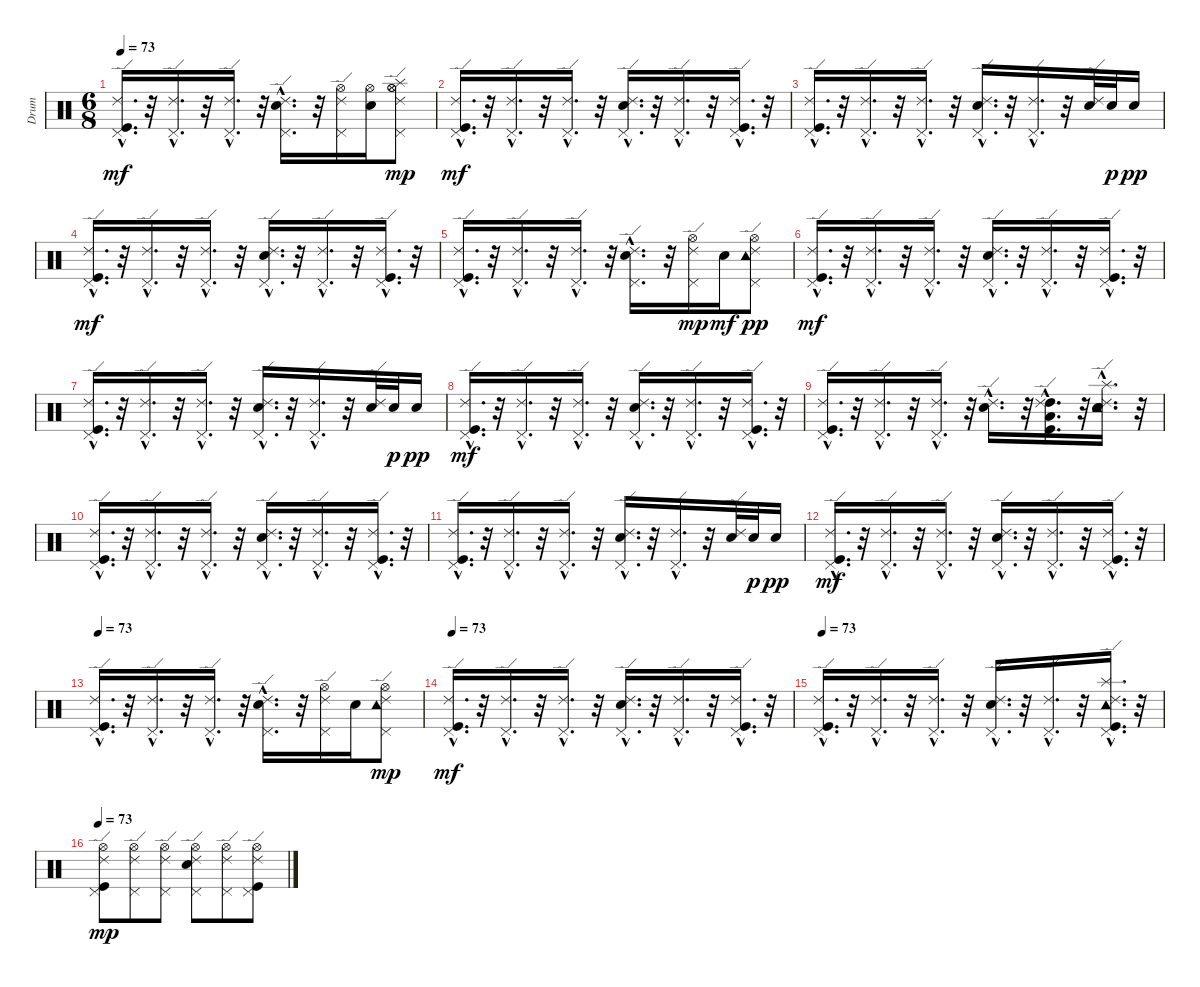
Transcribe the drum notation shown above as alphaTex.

\track ("Drum" "Drum") {instrument percussion}
\staff {score}
\articulation defaults
\ts (6 8)
\tempo 73
\clef neutral
\ks c
("Ride (edge) 2"{hac} "Pedal Hi-Hat (hit)"{hac} "Kick (hit)"{hac}).16{d dy mf} r.32 ("Pedal Hi-Hat (hit)"{hac} "Ride (edge) 2"{hac}).16{d} r.32 ("Ride (edge) 2"{hac} "Pedal Hi-Hat (hit)"{hac}).16{d} r.32 ("Ride (edge) 2"{hac} "Pedal Hi-Hat (hit)"{hac} "Snare (hit) 2"{hac}).16{d} r.32 ("Hi-Hat (open)" "Ride (edge) 2" "Pedal Hi-Hat (hit)").16 ("Hi-Hat (open)" "Snare (hit) 2").16 ("Splash (hit)" "Hi-Hat (open)" "Pedal Hi-Hat (hit)" "Ride (edge) 2" "Hi-Hat (open)").8{dy mp} |
("Kick (hit)"{hac} "Pedal Hi-Hat (hit)"{hac} "Ride (edge) 2"{hac}).16{d dy mf} r.32 ("Pedal Hi-Hat (hit)"{hac} "Ride (edge) 2"{hac}).16{d} r.32 ("Pedal Hi-Hat (hit)"{hac} "Ride (edge) 2"{hac}).16{d} r.32 ("Snare (hit) 2"{hac} "Pedal Hi-Hat (hit)"{hac} "Ride (edge) 2"{hac}).16{d} r.32 ("Pedal Hi-Hat (hit)"{hac} "Ride (edge) 2"{hac}).16{d} r.32 ("Kick (hit)"{hac} "Pedal Hi-Hat (hit)"{hac} "Ride (edge) 2"{hac}).16{d} r.32 |
("Kick (hit)"{hac} "Pedal Hi-Hat (hit)"{hac} "Ride (edge) 2"{hac}).16{d} r.32 ("Pedal Hi-Hat (hit)"{hac} "Ride (edge) 2"{hac}).16{d} r.32 ("Pedal Hi-Hat (hit)"{hac} "Ride (edge) 2"{hac}).16{d} r.32 ("Snare (hit) 2"{hac} "Pedal Hi-Hat (hit)"{hac} "Ride (edge) 2"{hac}).16{d} r.32 ("Pedal Hi-Hat (hit)"{hac} "Ride (edge) 2"{hac}).16{d} r.32 ("Snare (hit) 2" "Ride (edge) 2").32 "Snare (hit) 2".32{dy p} "Snare (hit) 2".16{dy pp} |
("Ride (edge) 2"{hac} "Pedal Hi-Hat (hit)"{hac} "Kick (hit)"{hac}).16{d dy mf} r.32 ("Ride (edge) 2"{hac} "Pedal Hi-Hat (hit)"{hac}).16{d} r.32 ("Ride (edge) 2"{hac} "Pedal Hi-Hat (hit)"{hac}).16{d} r.32 ("Ride (edge) 2"{hac} "Pedal Hi-Hat (hit)"{hac} "Snare (hit) 2"{hac}).16{d} r.32 ("Ride (edge) 2"{hac} "Pedal Hi-Hat (hit)"{hac}).16{d} r.32 ("Ride (edge) 2"{hac} "Pedal Hi-Hat (hit)"{hac} "Kick (hit)"{hac}).16{d} r.32 |
("Pedal Hi-Hat (hit)"{hac} "Kick (hit)"{hac} "Ride (edge) 2"{hac}).16{d} r.32 ("Pedal Hi-Hat (hit)"{hac} "Ride (edge) 2"{hac}).16{d} r.32 ("Ride (edge) 2"{hac} "Pedal Hi-Hat (hit)"{hac}).16{d} r.32 ("Pedal Hi-Hat (hit)"{hac} "Ride (edge) 2"{hac} "Snare (hit) 2"{hac}).16{d} r.32 ("Pedal Hi-Hat (hit)" "Ride (edge) 2" "Hi-Hat (open)").16{dy mp} "Snare (hit) 2".16{dy mf} ("Tambourine (hit)" "Pedal Hi-Hat (hit)" "Ride (edge) 2" "Hi-Hat (open)").8{dy pp} |
("Ride (edge) 2"{hac} "Pedal Hi-Hat (hit)"{hac} "Kick (hit)"{hac}).16{d dy mf} r.32 ("Ride (edge) 2"{hac} "Pedal Hi-Hat (hit)"{hac}).16{d} r.32 ("Ride (edge) 2"{hac} "Pedal Hi-Hat (hit)"{hac}).16{d} r.32 ("Ride (edge) 2"{hac} "Pedal Hi-Hat (hit)"{hac} "Snare (hit) 2"{hac}).16{d} r.32 ("Ride (edge) 2"{hac} "Pedal Hi-Hat (hit)"{hac}).16{d} r.32 ("Ride (edge) 2"{hac} "Pedal Hi-Hat (hit)"{hac} "Kick (hit)"{hac}).16{d} r.32 |
("Ride (edge) 2"{hac} "Pedal Hi-Hat (hit)"{hac} "Kick (hit)"{hac}).16{d} r.32 ("Ride (edge) 2"{hac} "Pedal Hi-Hat (hit)"{hac}).16{d} r.32 ("Ride (edge) 2"{hac} "Pedal Hi-Hat (hit)"{hac}).16{d} r.32 ("Ride (edge) 2"{hac} "Pedal Hi-Hat (hit)"{hac} "Snare (hit) 2"{hac}).16{d} r.32 ("Ride (edge) 2"{hac} "Pedal Hi-Hat (hit)"{hac}).16{d} r.32 ("Ride (edge) 2" "Snare (hit) 2").32 "Snare (hit) 2".32{dy p} "Snare (hit) 2".16{dy pp} |
("Kick (hit)"{hac} "Pedal Hi-Hat (hit)"{hac} "Ride (edge) 2"{hac}).16{d dy mf} r.32 ("Pedal Hi-Hat (hit)"{hac} "Ride (edge) 2"{hac}).16{d} r.32 ("Pedal Hi-Hat (hit)"{hac} "Ride (edge) 2"{hac}).16{d} r.32 ("Snare (hit) 2"{hac} "Pedal Hi-Hat (hit)"{hac} "Ride (edge) 2"{hac}).16{d} r.32 ("Pedal Hi-Hat (hit)"{hac} "Ride (edge) 2"{hac}).16{d} r.32 ("Kick (hit)"{hac} "Pedal Hi-Hat (hit)"{hac} "Ride (edge) 2"{hac}).16{d} r.32 |
("Ride (edge) 2"{hac} "Pedal Hi-Hat (hit)"{hac} "Kick (hit)"{hac}).16{d} r.32 ("Ride (edge) 2"{hac} "Pedal Hi-Hat (hit)"{hac}).16{d} r.32 ("Pedal Hi-Hat (hit)"{hac} "Ride (edge) 2"{hac}).16{d} r.32 ("Snare (hit) 2"{hac} "Ride (edge) 2"{hac}).16{d} r.32 ("Low Tom (hit)"{hac} "Kick (hit)"{hac} "High Tom (hit)"{hac} "Ride (edge) 2"{hac}).16{d} r.32 ("Splash (hit)"{hac} "Tambourine (hit)"{hac} "Snare (hit) 2"{hac} "Electric Snare (hit)"{hac} "Ride (edge) 2"{hac}).16{d} r.32 |
("Kick (hit)"{hac} "Pedal Hi-Hat (hit)"{hac} "Ride (edge) 2"{hac}).16{d} r.32 ("Pedal Hi-Hat (hit)"{hac} "Ride (edge) 2"{hac}).16{d} r.32 ("Pedal Hi-Hat (hit)"{hac} "Ride (edge) 2"{hac}).16{d} r.32 ("Snare (hit) 2"{hac} "Pedal Hi-Hat (hit)"{hac} "Ride (edge) 2"{hac}).16{d} r.32 ("Pedal Hi-Hat (hit)"{hac} "Ride (edge) 2"{hac}).16{d} r.32 ("Kick (hit)"{hac} "Pedal Hi-Hat (hit)"{hac} "Ride (edge) 2"{hac}).16{d} r.32 |
("Kick (hit)"{hac} "Pedal Hi-Hat (hit)"{hac} "Ride (edge) 2"{hac}).16{d} r.32 ("Pedal Hi-Hat (hit)"{hac} "Ride (edge) 2"{hac}).16{d} r.32 ("Pedal Hi-Hat (hit)"{hac} "Ride (edge) 2"{hac}).16{d} r.32 ("Snare (hit) 2"{hac} "Pedal Hi-Hat (hit)"{hac} "Ride (edge) 2"{hac}).16{d} r.32 ("Pedal Hi-Hat (hit)"{hac} "Ride (edge) 2"{hac}).16{d} r.32 ("Snare (hit) 2" "Ride (edge) 2").32 "Snare (hit) 2".32{dy p} "Snare (hit) 2".16{dy pp} |
("Ride (edge) 2"{hac} "Kick (hit)"{hac} "Pedal Hi-Hat (hit)"{hac}).16{d dy mf} r.32 ("Ride (edge) 2"{hac} "Pedal Hi-Hat (hit)"{hac}).16{d} r.32 ("Pedal Hi-Hat (hit)"{hac} "Ride (edge) 2"{hac}).16{d} r.32 ("Pedal Hi-Hat (hit)"{hac} "Ride (edge) 2"{hac} "Snare (hit) 2"{hac}).16{d} r.32 ("Ride (edge) 2"{hac} "Pedal Hi-Hat (hit)"{hac}).16{d} r.32 ("Kick (hit)"{hac} "Ride (edge) 2"{hac} "Pedal Hi-Hat (hit)"{hac}).16{d} r.32 |
\tempo 73
("Ride (edge) 2"{hac} "Kick (hit)"{hac} "Pedal Hi-Hat (hit)"{hac}).16{d} r.32 ("Ride (edge) 2"{hac} "Pedal Hi-Hat (hit)"{hac}).16{d} r.32 ("Pedal Hi-Hat (hit)"{hac} "Ride (edge) 2"{hac}).16{d} r.32 ("Snare (hit) 2"{hac} "Ride (edge) 2"{hac} "Pedal Hi-Hat (hit)"{hac}).16{d} r.32 ("Hi-Hat (open)" "Ride (edge) 2" "Pedal Hi-Hat (hit)").16 "Snare (hit) 2".16 ("Hi-Hat (open)" "Ride (edge) 2" "Pedal Hi-Hat (hit)" "Tambourine (hit)").8{dy mp} |
\tempo 73
("Pedal Hi-Hat (hit)"{hac} "Ride (edge) 2"{hac} "Kick (hit)"{hac}).16{d dy mf} r.32 ("Ride (edge) 2"{hac} "Pedal Hi-Hat (hit)"{hac}).16{d} r.32 ("Ride (edge) 2"{hac} "Pedal Hi-Hat (hit)"{hac}).16{d} r.32 ("Pedal Hi-Hat (hit)"{hac} "Ride (edge) 2"{hac} "Snare (hit) 2"{hac}).16{d} r.32 ("Ride (edge) 2"{hac} "Pedal Hi-Hat (hit)"{hac}).16{d} r.32 ("Ride (edge) 2"{hac} "Pedal Hi-Hat (hit)"{hac} "Kick (hit)"{hac}).16{d} r.32 |
\tempo 73
("Pedal Hi-Hat (hit)"{hac} "Ride (edge) 2"{hac} "Kick (hit)"{hac}).16{d} r.32 ("Ride (edge) 2"{hac} "Pedal Hi-Hat (hit)"{hac}).16{d} r.32 ("Ride (edge) 2"{hac} "Pedal Hi-Hat (hit)"{hac}).16{d} r.32 ("Pedal Hi-Hat (hit)"{hac} "Ride (edge) 2"{hac} "Snare (hit) 2"{hac}).16{d} r.32 ("Ride (edge) 2"{hac} "Pedal Hi-Hat (hit)"{hac}).16{d} r.32 ("Splash (hit)"{hac} "Kick (hit)"{hac} "Pedal Hi-Hat (hit)"{hac} "Ride (edge) 2"{hac} "Tambourine (hit)"{hac}).16{d} r.32 |
\tempo 73
("Pedal Hi-Hat (hit)" "Ride (edge) 2" "Kick (hit)" "Hi-Hat (open)").8{dy mp} ("Pedal Hi-Hat (hit)" "Ride (edge) 2" "Hi-Hat (open)").8 ("Ride (edge) 2" "Pedal Hi-Hat (hit)" "Hi-Hat (open)").8 ("Pedal Hi-Hat (hit)" "Ride (edge) 2" "Snare (hit) 2" "Hi-Hat (open)").8 ("Pedal Hi-Hat (hit)" "Ride (edge) 2" "Hi-Hat (open)").8 ("Kick (hit)" "Pedal Hi-Hat (hit)" "Ride (edge) 2" "Hi-Hat (open)").8
